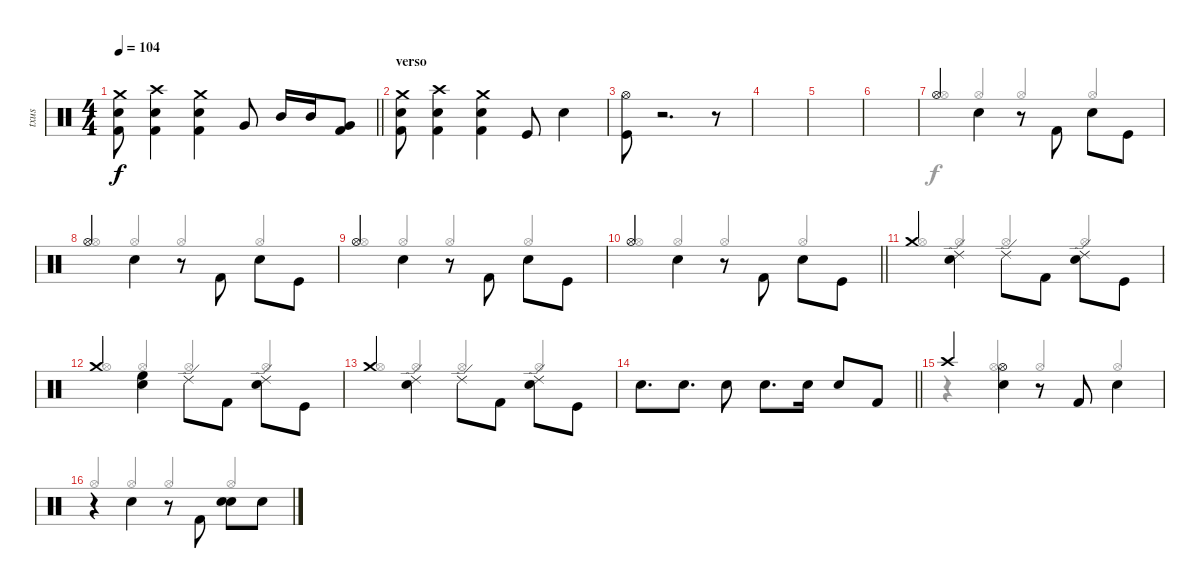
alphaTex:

\track ("txus" "txus") {instrument percussion}
\staff {score}
\articulation defaults
\voice
\ts (4 4)
\tempo 104
\clef neutral
\barLineRight lightlight
\ks c
("Crash medium (hit)" "Kick (hit) 2" "Snare (hit) 2").8{dy f} ("Crash high (hit)" "Kick (hit) 2" "Snare (hit) 2").4 ("Crash medium (hit)" "Kick (hit) 2" "Snare (hit) 2").4 "Very Low Tom (hit)".8 "Mid Tom (hit)".16 "Mid Tom (hit)".16 ("Kick (hit) 2" "Very Low Tom (hit)").8 |
\section ("" "verso")
("Crash medium (hit)" "Kick (hit) 2" "Snare (hit) 2").8 ("Crash high (hit)" "Kick (hit) 2" "Snare (hit) 2").4 ("Crash medium (hit)" "Kick (hit) 2" "Snare (hit) 2").4 "Kick (hit)".8 "Electric Snare (hit)".4 |
("Hi-Hat (open)" "Kick (hit)").8 r.2{d} r.8 |
|
|
|
"Hi-Hat (open)".4 "Electric Snare (hit)".4{beam Down} r.8 "Kick (hit) 2".8{beam Down} "Electric Snare (hit)".8{beam Down} "Kick (hit)".8 |
"Hi-Hat (open)".4 "Electric Snare (hit)".4{beam Down} r.8 "Kick (hit) 2".8{beam Down} "Electric Snare (hit)".8{beam Down} "Kick (hit)".8 |
"Hi-Hat (open)".4 "Electric Snare (hit)".4{beam Down} r.8 "Kick (hit) 2".8{beam Down} "Electric Snare (hit)".8{beam Down} "Kick (hit)".8 |
\barLineRight lightlight "Hi-Hat (open)".4 "Electric Snare (hit)".4{beam Down}
r.8 "Kick (hit) 2".8{beam Down} "Electric Snare (hit)".8{beam Down} "Kick (hit)".8 |
\section ("" "")
"Crash medium (hit)".4 ("Ride (edge) 2" "Electric Snare (hit)").4{beam Down} "Ride (edge) 2".8 "Kick (hit) 2".8{beam Down} ("Ride (edge) 2" "Electric Snare (hit)").8{beam Down} "Kick (hit)".8 |
"Crash medium (hit)".4 ("High Floor Tom (hit)" "Electric Snare (hit)").4{beam Down} "Ride (edge) 2".8 "Kick (hit) 2".8{beam Down} ("Ride (edge) 2" "Electric Snare (hit)").8{beam Down} "Kick (hit)".8 |
"Crash medium (hit)".4 ("Ride (edge) 2" "Electric Snare (hit)").4{beam Down} "Ride (edge) 2".8 "Kick (hit) 2".8{beam Down} ("Ride (edge) 2" "Electric Snare (hit)").8{beam Down} "Kick (hit)".8 |
\barLineRight lightlight "Snare (hit) 2".8{d} "Snare (hit) 2".8{d} "Snare (hit) 2".8 "Snare (hit) 2".8{d} "Snare (hit) 2".16 "Snare (hit) 2".8 "Kick (hit) 2".8
|
"Crash high (hit)".4 ("Hi-Hat (open)" "Electric Snare (hit)").4{beam Down} r.8 "Kick (hit) 2".8 "Electric Snare (hit)".4{beam Down} |
r.4 "Electric Snare (hit)".4{beam Down} r.8 "Kick (hit) 2".8{beam Down} ("Electric Snare (hit)" "Electric Snare (hit)").8{beam Down} "Electric Snare (hit)".8
\voice
\clef neutral
\ottava regular
\simile none
\barLineRight lightlight
\ks c
|
|
|
|
|
|
"Hi-Hat (open)".4{beam Up} "Hi-Hat (open)".4{beam Up} "Hi-Hat (open)".4{beam Up} "Hi-Hat (open)".4{beam Up} |
"Hi-Hat (open)".4{beam Up} "Hi-Hat (open)".4{beam Up} "Hi-Hat (open)".4{beam Up} "Hi-Hat (open)".4{beam Up} |
"Hi-Hat (open)".4{beam Up} "Hi-Hat (open)".4{beam Up} "Hi-Hat (open)".4{beam Up} "Hi-Hat (open)".4{beam Up} |
\barLineRight lightlight "Hi-Hat (open)".4{beam Up} "Hi-Hat (open)".4{beam Up} "Hi-Hat (open)".4{beam Up} "Hi-Hat (open)".4{beam Up}
|
"Hi-Hat (open)".4{beam Up} "Hi-Hat (open)".4{beam Up} "Hi-Hat (open)".4{beam Up} "Hi-Hat (open)".4{beam Up} |
"Hi-Hat (open)".4{beam Up} "Hi-Hat (open)".4{beam Up} "Hi-Hat (open)".4{beam Up} "Hi-Hat (open)".4{beam Up} |
"Hi-Hat (open)".4{beam Up} "Hi-Hat (open)".4{beam Up} "Hi-Hat (open)".4{beam Up} "Hi-Hat (open)".4{beam Up} |
\barLineRight lightlight
|
r.4{beam Up} "Hi-Hat (open)".4{beam Up} "Hi-Hat (open)".4{beam Up} "Hi-Hat (open)".4{beam Up} |
"Hi-Hat (open)".4{beam Up} "Hi-Hat (open)".4{beam Up} "Hi-Hat (open)".4{beam Up} "Hi-Hat (open)".4{beam Up}
